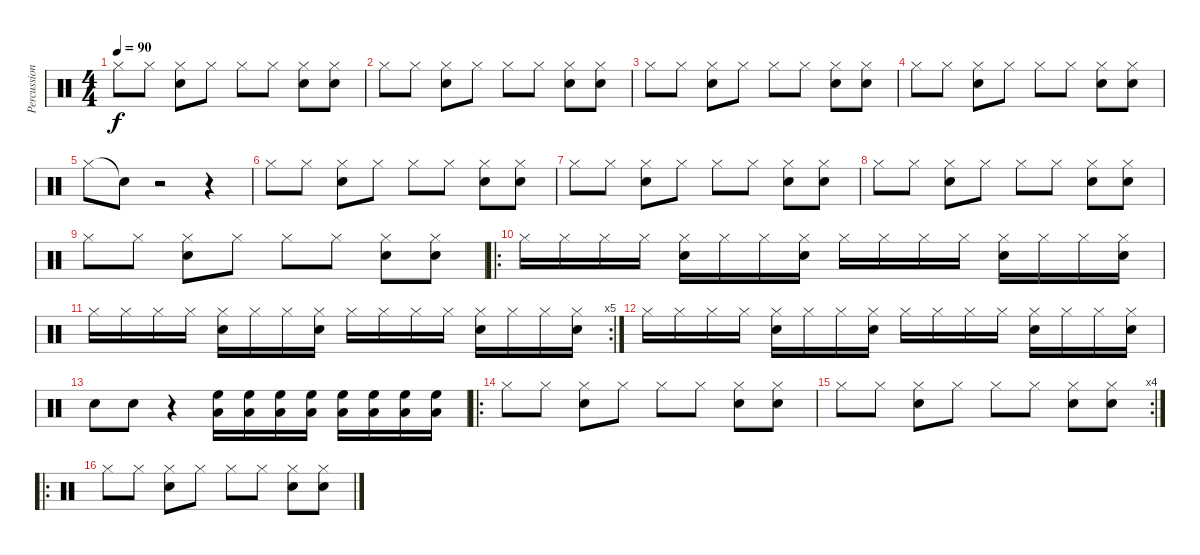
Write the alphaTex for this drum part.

\track ("Percussion" "Percussion") {instrument percussion}
\staff {score}
\articulation defaults
\ts (4 4)
\tempo 90
\clef neutral
\ks c "Hi-Hat (closed)".8{dy f} "Hi-Hat (closed)".8
("Snare (hit) 2" "Hi-Hat (closed)").8 "Hi-Hat (closed)".8 "Hi-Hat (closed)".8 "Hi-Hat (closed)".8 ("Snare (hit) 2" "Hi-Hat (closed)").8 ("Snare (hit) 2" "Hi-Hat (closed)").8 |
"Hi-Hat (closed)".8 "Hi-Hat (closed)".8 ("Snare (hit) 2" "Hi-Hat (closed)").8 "Hi-Hat (closed)".8 "Hi-Hat (closed)".8 "Hi-Hat (closed)".8 ("Snare (hit) 2" "Hi-Hat (closed)").8 ("Snare (hit) 2" "Hi-Hat (closed)").8 |
"Hi-Hat (closed)".8 "Hi-Hat (closed)".8 ("Snare (hit) 2" "Hi-Hat (closed)").8 "Hi-Hat (closed)".8 "Hi-Hat (closed)".8 "Hi-Hat (closed)".8 ("Snare (hit) 2" "Hi-Hat (closed)").8 ("Snare (hit) 2" "Hi-Hat (closed)").8 |
"Hi-Hat (closed)".8 "Hi-Hat (closed)".8 ("Snare (hit) 2" "Hi-Hat (closed)").8 "Hi-Hat (closed)".8 "Hi-Hat (closed)".8 "Hi-Hat (closed)".8 ("Snare (hit) 2" "Hi-Hat (closed)").8 ("Snare (hit) 2" "Hi-Hat (closed)").8 |
"Hi-Hat (closed)".8 "Snare (hit)"{t}.8 r.2 r.4 |
"Hi-Hat (closed)".8 "Hi-Hat (closed)".8 ("Snare (hit) 2" "Hi-Hat (closed)").8 "Hi-Hat (closed)".8 "Hi-Hat (closed)".8 "Hi-Hat (closed)".8 ("Snare (hit) 2" "Hi-Hat (closed)").8 ("Snare (hit) 2" "Hi-Hat (closed)").8 |
"Hi-Hat (closed)".8 "Hi-Hat (closed)".8 ("Snare (hit) 2" "Hi-Hat (closed)").8 "Hi-Hat (closed)".8 "Hi-Hat (closed)".8 "Hi-Hat (closed)".8 ("Snare (hit) 2" "Hi-Hat (closed)").8 ("Snare (hit) 2" "Hi-Hat (closed)").8 |
"Hi-Hat (closed)".8 "Hi-Hat (closed)".8 ("Snare (hit) 2" "Hi-Hat (closed)").8 "Hi-Hat (closed)".8 "Hi-Hat (closed)".8 "Hi-Hat (closed)".8 ("Snare (hit) 2" "Hi-Hat (closed)").8 ("Snare (hit) 2" "Hi-Hat (closed)").8 |
"Hi-Hat (closed)".8 "Hi-Hat (closed)".8 ("Snare (hit) 2" "Hi-Hat (closed)").8 "Hi-Hat (closed)".8 "Hi-Hat (closed)".8 "Hi-Hat (closed)".8 ("Snare (hit) 2" "Hi-Hat (closed)").8 ("Snare (hit) 2" "Hi-Hat (closed)").8 |
\ro "Hi-Hat (closed)".16 "Hi-Hat (closed)".16 "Hi-Hat (closed)".16 "Hi-Hat (closed)".16
("Snare (hit) 2" "Hi-Hat (closed)").16 "Hi-Hat (closed)".16 "Hi-Hat (closed)".16 ("Snare (hit) 2" "Hi-Hat (closed)").16 "Hi-Hat (closed)".16 "Hi-Hat (closed)".16 "Hi-Hat (closed)".16 "Hi-Hat (closed)".16 ("Snare (hit) 2" "Hi-Hat (closed)").16 "Hi-Hat (closed)".16 "Hi-Hat (closed)".16 ("Snare (hit) 2" "Hi-Hat (closed)").16 |
\rc 5 "Hi-Hat (closed)".16 "Hi-Hat (closed)".16 "Hi-Hat (closed)".16 "Hi-Hat (closed)".16
("Snare (hit) 2" "Hi-Hat (closed)").16 "Hi-Hat (closed)".16 "Hi-Hat (closed)".16 ("Snare (hit) 2" "Hi-Hat (closed)").16 "Hi-Hat (closed)".16 "Hi-Hat (closed)".16 "Hi-Hat (closed)".16 "Hi-Hat (closed)".16 ("Snare (hit) 2" "Hi-Hat (closed)").16 "Hi-Hat (closed)".16 "Hi-Hat (closed)".16 ("Snare (hit) 2" "Hi-Hat (closed)").16 |
"Hi-Hat (closed)".16 "Hi-Hat (closed)".16 "Hi-Hat (closed)".16 "Hi-Hat (closed)".16 ("Snare (hit) 2" "Hi-Hat (closed)").16 "Hi-Hat (closed)".16 "Hi-Hat (closed)".16 ("Snare (hit) 2" "Hi-Hat (closed)").16 "Hi-Hat (closed)".16 "Hi-Hat (closed)".16 "Hi-Hat (closed)".16 "Hi-Hat (closed)".16 ("Snare (hit) 2" "Hi-Hat (closed)").16 "Hi-Hat (closed)".16 "Hi-Hat (closed)".16 ("Snare (hit) 2" "Hi-Hat (closed)").16 |
"Snare (hit) 2".8 "Snare (hit) 2".8 r.4 ("Low Tom (hit)" "High Floor Tom (hit)").16 ("Low Tom (hit)" "High Floor Tom (hit)").16 ("Low Tom (hit)" "High Floor Tom (hit)").16 ("Low Tom (hit)" "High Floor Tom (hit)").16 ("Low Tom (hit)" "High Floor Tom (hit)").16 ("Low Tom (hit)" "High Floor Tom (hit)").16 ("Low Tom (hit)" "High Floor Tom (hit)").16 ("Low Tom (hit)" "High Floor Tom (hit)").16 |
\ro "Hi-Hat (closed)".8 "Hi-Hat (closed)".8
("Snare (hit) 2" "Hi-Hat (closed)").8 "Hi-Hat (closed)".8 "Hi-Hat (closed)".8 "Hi-Hat (closed)".8 ("Snare (hit) 2" "Hi-Hat (closed)").8 ("Snare (hit) 2" "Hi-Hat (closed)").8 |
\rc 4 "Hi-Hat (closed)".8 "Hi-Hat (closed)".8
("Snare (hit) 2" "Hi-Hat (closed)").8 "Hi-Hat (closed)".8 "Hi-Hat (closed)".8 "Hi-Hat (closed)".8 ("Snare (hit) 2" "Hi-Hat (closed)").8 ("Snare (hit) 2" "Hi-Hat (closed)").8 |
\ro "Hi-Hat (closed)".8 "Hi-Hat (closed)".8
("Snare (hit) 2" "Hi-Hat (closed)").8 "Hi-Hat (closed)".8 "Hi-Hat (closed)".8 "Hi-Hat (closed)".8 ("Snare (hit) 2" "Hi-Hat (closed)").8 ("Snare (hit) 2" "Hi-Hat (closed)").8
